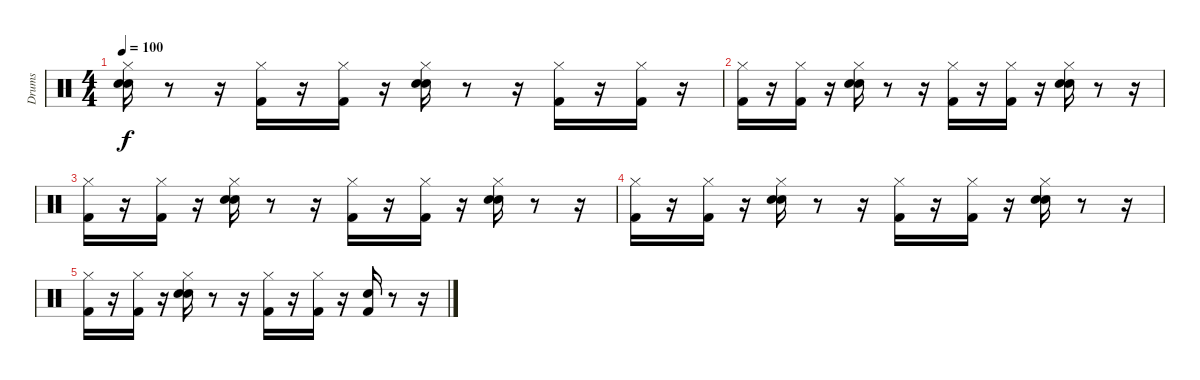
\track ("Drums" "Drums") {instrument percussion}
\staff {score}
\articulation defaults
\ts (4 4)
\tempo 100
\clef neutral
\ks c
("Snare (hit) 2" "Hand Clap (hit)" "Hi-Hat (closed)").16{dy f} r.8 r.16 ("Hi-Hat (closed)" "Kick (hit) 2").16 r.16 ("Hi-Hat (closed)" "Kick (hit) 2").16 r.16 ("Hand Clap (hit)" "Hi-Hat (closed)" "Snare (hit) 2").16 r.8 r.16 ("Hi-Hat (closed)" "Kick (hit) 2").16 r.16 ("Kick (hit) 2" "Hi-Hat (closed)").16 r.16 |
("Kick (hit) 2" "Hi-Hat (closed)").16 r.16 ("Kick (hit) 2" "Hi-Hat (closed)").16 r.16 ("Snare (hit) 2" "Hand Clap (hit)" "Hi-Hat (closed)").16 r.8 r.16 ("Hi-Hat (closed)" "Kick (hit) 2").16 r.16 ("Hi-Hat (closed)" "Kick (hit) 2").16 r.16 ("Hi-Hat (closed)" "Snare (hit) 2" "Hand Clap (hit)").16 r.8 r.16 |
("Hi-Hat (closed)" "Kick (hit) 2").16 r.16 ("Hi-Hat (closed)" "Kick (hit) 2").16 r.16 ("Hi-Hat (closed)" "Hand Clap (hit)" "Snare (hit) 2").16 r.8 r.16 ("Kick (hit) 2" "Hi-Hat (closed)").16 r.16 ("Kick (hit) 2" "Hi-Hat (closed)").16 r.16 ("Hi-Hat (closed)" "Snare (hit) 2" "Hand Clap (hit)").16 r.8 r.16 |
("Hi-Hat (closed)" "Kick (hit) 2").16 r.16 ("Kick (hit) 2" "Hi-Hat (closed)").16 r.16 ("Hand Clap (hit)" "Snare (hit) 2" "Hi-Hat (closed)").16 r.8 r.16 ("Hi-Hat (closed)" "Kick (hit) 2").16 r.16 ("Hi-Hat (closed)" "Kick (hit) 2").16 r.16 ("Hi-Hat (closed)" "Snare (hit) 2" "Hand Clap (hit)").16 r.8 r.16 |
("Hi-Hat (closed)" "Kick (hit) 2").16 r.16 ("Kick (hit) 2" "Hi-Hat (closed)").16 r.16 ("Snare (hit) 2" "Hi-Hat (closed)" "Hand Clap (hit)").16 r.8 r.16 ("Kick (hit) 2" "Hi-Hat (closed)").16 r.16 ("Kick (hit) 2" "Hi-Hat (closed)").16 r.16 ("Kick (hit) 2" "Hand Clap (hit)").16 r.8 r.16
